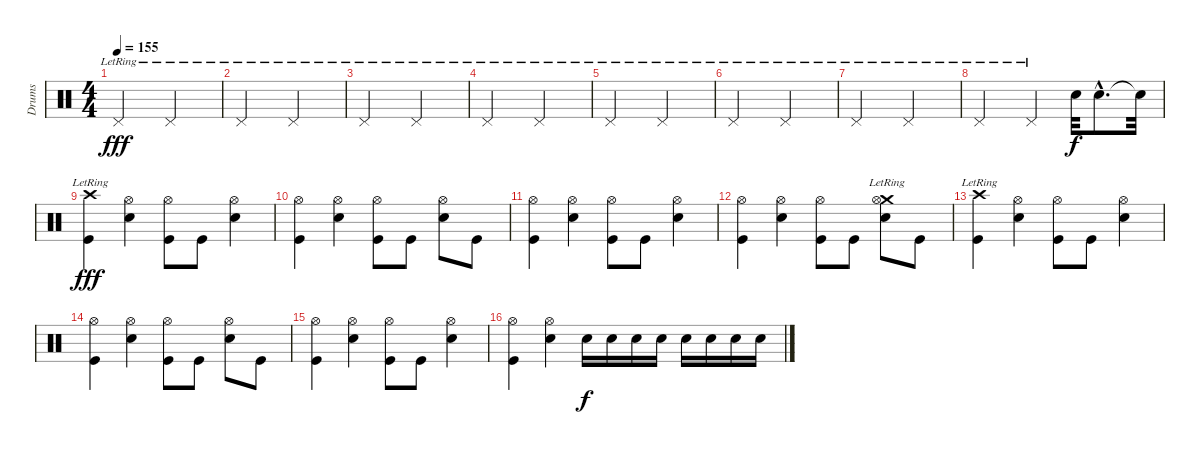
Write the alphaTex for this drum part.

\track ("Drums" "Drums") {instrument percussion}
\staff {score}
\articulation defaults
\ts (4 4)
\tempo 155
\clef neutral
\ks c "Pedal Hi-Hat (hit)"{lr}.2{dy fff} "Pedal Hi-Hat (hit)"{lr}.2
|
"Pedal Hi-Hat (hit)"{lr}.2 "Pedal Hi-Hat (hit)"{lr}.2 |
"Pedal Hi-Hat (hit)"{lr}.2 "Pedal Hi-Hat (hit)"{lr}.2 |
"Pedal Hi-Hat (hit)"{lr}.2 "Pedal Hi-Hat (hit)"{lr}.2 |
"Pedal Hi-Hat (hit)"{lr}.2 "Pedal Hi-Hat (hit)"{lr}.2 |
"Pedal Hi-Hat (hit)"{lr}.2 "Pedal Hi-Hat (hit)"{lr}.2 |
"Pedal Hi-Hat (hit)"{lr}.2 "Pedal Hi-Hat (hit)"{lr}.2 |
"Pedal Hi-Hat (hit)"{lr}.2 "Pedal Hi-Hat (hit)"{lr}.4 "Snare (hit) 2".32{dy f} "Snare (hit) 2"{hac}.8{d} "Snare (hit)"{t}.32 |
("Crash high (hit)"{lr} "Kick (hit)").4{dy fff} ("Hi-Hat (open)" "Snare (hit) 2").4 ("Hi-Hat (open)" "Kick (hit)").8 "Kick (hit)".8 ("Hi-Hat (open)" "Snare (hit) 2").4 |
("Hi-Hat (open)" "Kick (hit)").4 ("Hi-Hat (open)" "Snare (hit) 2").4 ("Hi-Hat (open)" "Kick (hit)").8 "Kick (hit)".8 ("Hi-Hat (open)" "Snare (hit) 2").8 "Kick (hit)".8 |
("Hi-Hat (open)" "Kick (hit)").4 ("Hi-Hat (open)" "Snare (hit) 2").4 ("Hi-Hat (open)" "Kick (hit)").8 "Kick (hit)".8 ("Hi-Hat (open)" "Snare (hit) 2").4 |
("Hi-Hat (open)" "Kick (hit)").4 ("Hi-Hat (open)" "Snare (hit) 2").4 ("Hi-Hat (open)" "Kick (hit)").8 "Kick (hit)".8 ("Crash medium (hit)"{lr} "Hi-Hat (open)" "Snare (hit) 2").8 "Kick (hit)".8 |
("Crash high (hit)"{lr} "Kick (hit)").4 ("Hi-Hat (open)" "Snare (hit) 2").4 ("Hi-Hat (open)" "Kick (hit)").8 "Kick (hit)".8 ("Hi-Hat (open)" "Snare (hit) 2").4 |
("Hi-Hat (open)" "Kick (hit)").4 ("Hi-Hat (open)" "Snare (hit) 2").4 ("Hi-Hat (open)" "Kick (hit)").8 "Kick (hit)".8 ("Hi-Hat (open)" "Snare (hit) 2").8 "Kick (hit)".8 |
("Hi-Hat (open)" "Kick (hit)").4 ("Hi-Hat (open)" "Snare (hit) 2").4 ("Hi-Hat (open)" "Kick (hit)").8 "Kick (hit)".8 ("Hi-Hat (open)" "Snare (hit) 2").4 |
("Hi-Hat (open)" "Kick (hit)").4 ("Hi-Hat (open)" "Snare (hit) 2").4 "Snare (hit) 2".16{dy f} "Snare (hit) 2".16 "Snare (hit) 2".16 "Snare (hit) 2".16 "Snare (hit) 2".16 "Snare (hit) 2".16 "Snare (hit) 2".16 "Snare (hit) 2".16
